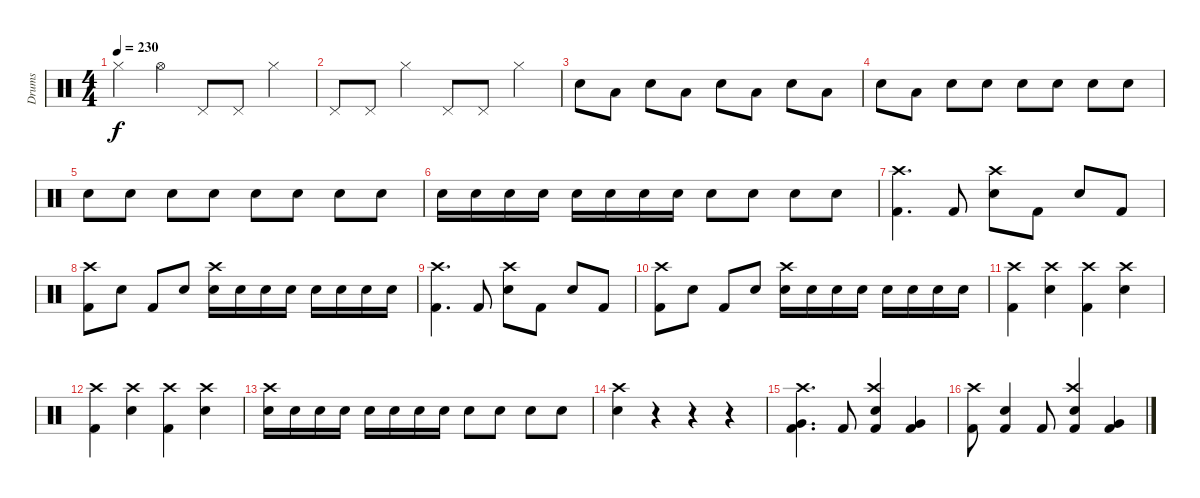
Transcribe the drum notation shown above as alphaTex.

\track ("Drums" "Drums") {instrument percussion}
\staff {score}
\articulation defaults
\ts (4 4)
\tempo 230
\clef neutral
\ks c "Hi-Hat (closed)".4{dy f} "Hi-Hat (open)".4 "Pedal Hi-Hat (hit)".8 "Pedal Hi-Hat (hit)".8 "Hi-Hat (closed)".4
|
"Pedal Hi-Hat (hit)".8 "Pedal Hi-Hat (hit)".8 "Hi-Hat (closed)".4 "Pedal Hi-Hat (hit)".8 "Pedal Hi-Hat (hit)".8 "Hi-Hat (closed)".4 |
"Snare (hit) 2".8 "Low Tom (hit)".8 "Snare (hit) 2".8 "Low Tom (hit)".8 "Snare (hit) 2".8 "Low Tom (hit)".8 "Snare (hit) 2".8 "Low Tom (hit)".8 |
"Snare (hit) 2".8 "Low Tom (hit)".8 "Snare (hit) 2".8 "Snare (hit) 2".8 "Snare (hit) 2".8 "Snare (hit) 2".8 "Snare (hit) 2".8 "Snare (hit) 2".8 |
"Snare (hit) 2".8 "Snare (hit) 2".8 "Snare (hit) 2".8 "Snare (hit) 2".8 "Snare (hit) 2".8 "Snare (hit) 2".8 "Snare (hit) 2".8 "Snare (hit) 2".8 |
"Snare (hit) 2".16 "Snare (hit) 2".16 "Snare (hit) 2".16 "Snare (hit) 2".16 "Snare (hit) 2".16 "Snare (hit) 2".16 "Snare (hit) 2".16 "Snare (hit) 2".16 "Snare (hit) 2".8 "Snare (hit) 2".8 "Snare (hit) 2".8 "Snare (hit) 2".8 |
("Crash high (hit)" "Kick (hit) 2").4{d} "Kick (hit) 2".8 ("Crash high (hit)" "Snare (hit) 2").8 "Kick (hit) 2".8 "Snare (hit) 2".8 "Kick (hit) 2".8 |
("Crash high (hit)" "Kick (hit) 2").8 "Snare (hit) 2".8 "Kick (hit) 2".8 "Snare (hit) 2".8 ("Crash high (hit)" "Snare (hit) 2").16 "Snare (hit) 2".16 "Snare (hit) 2".16 "Snare (hit) 2".16 "Snare (hit) 2".16 "Snare (hit) 2".16 "Snare (hit) 2".16 "Snare (hit) 2".16 |
("Crash high (hit)" "Kick (hit) 2").4{d} "Kick (hit) 2".8 ("Crash high (hit)" "Snare (hit) 2").8 "Kick (hit) 2".8 "Snare (hit) 2".8 "Kick (hit) 2".8 |
("Crash high (hit)" "Kick (hit) 2").8 "Snare (hit) 2".8 "Kick (hit) 2".8 "Snare (hit) 2".8 ("Crash high (hit)" "Snare (hit) 2").16 "Snare (hit) 2".16 "Snare (hit) 2".16 "Snare (hit) 2".16 "Snare (hit) 2".16 "Snare (hit) 2".16 "Snare (hit) 2".16 "Snare (hit) 2".16 |
("Crash high (hit)" "Kick (hit) 2").4 ("Crash high (hit)" "Snare (hit) 2").4 ("Crash high (hit)" "Kick (hit) 2").4 ("Crash high (hit)" "Snare (hit) 2").4 |
("Crash high (hit)" "Kick (hit) 2").4 ("Crash high (hit)" "Snare (hit) 2").4 ("Crash high (hit)" "Kick (hit) 2").4 ("Crash high (hit)" "Snare (hit) 2").4 |
("Snare (hit) 2" "Crash high (hit)").16 "Snare (hit) 2".16 "Snare (hit) 2".16 "Snare (hit) 2".16 "Snare (hit) 2".16 "Snare (hit) 2".16 "Snare (hit) 2".16 "Snare (hit) 2".16 "Snare (hit) 2".8 "Snare (hit) 2".8 "Snare (hit) 2".8 "Snare (hit) 2".8 |
("Snare (hit) 2" "Crash high (hit)").4 r.4 r.4 r.4 |
("Very Low Tom (hit)" "Kick (hit) 2" "Crash high (hit)").4{d} "Kick (hit) 2".8 ("Snare (hit) 2" "Kick (hit) 2" "Crash high (hit)").4 ("Very Low Tom (hit)" "Kick (hit) 2").4 |
("Kick (hit) 2" "Crash high (hit)").8 ("Snare (hit) 2" "Kick (hit) 2").4 "Kick (hit) 2".8 ("Snare (hit) 2" "Kick (hit) 2" "Crash high (hit)").4 ("Very Low Tom (hit)" "Kick (hit) 2").4
